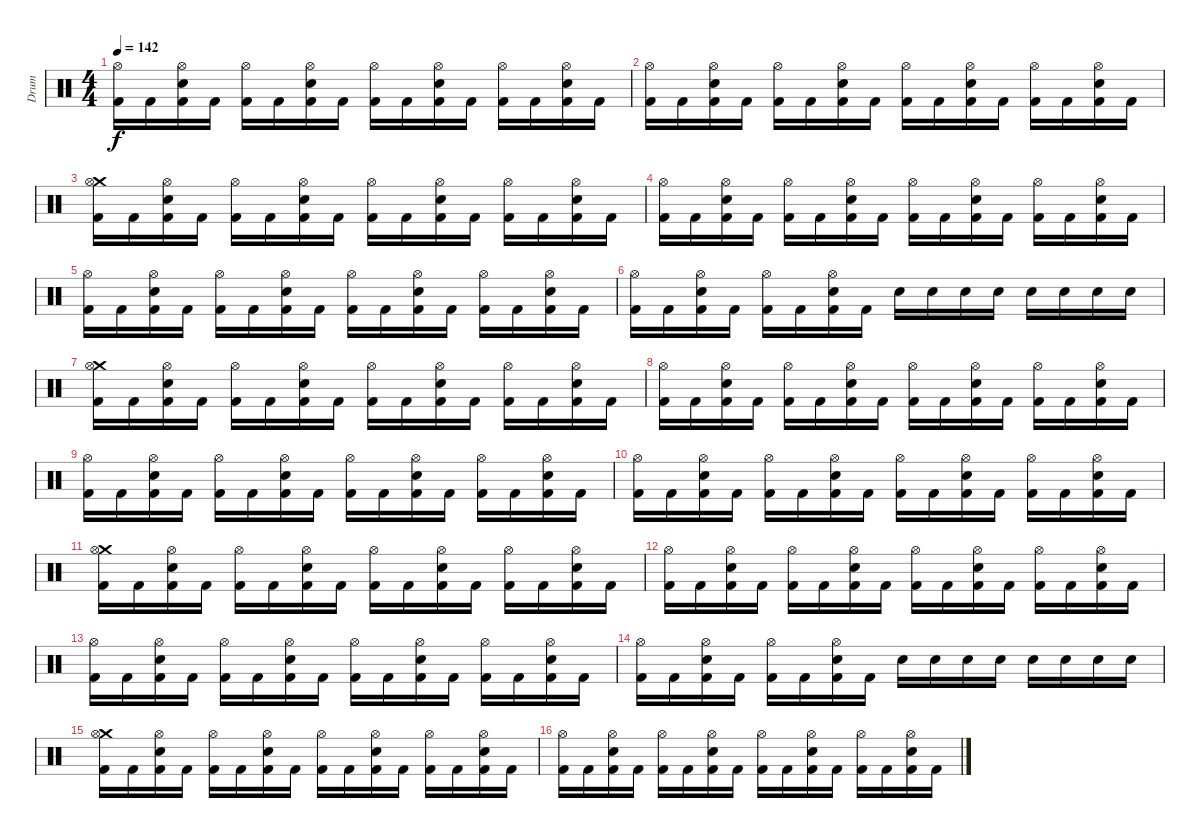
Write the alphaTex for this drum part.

\track ("Drum" "Drum") {instrument percussion}
\staff {score}
\articulation defaults
\ts (4 4)
\tempo 142
\clef neutral
\ks c
("Hi-Hat (open)" "Kick (hit) 2").16{dy f} "Kick (hit) 2".16 ("Electric Snare (hit)" "Hi-Hat (open)" "Kick (hit) 2").16 "Kick (hit) 2".16 ("Hi-Hat (open)" "Kick (hit) 2").16 "Kick (hit) 2".16 ("Electric Snare (hit)" "Hi-Hat (open)" "Kick (hit) 2").16 "Kick (hit) 2".16 ("Hi-Hat (open)" "Kick (hit) 2").16 "Kick (hit) 2".16 ("Electric Snare (hit)" "Hi-Hat (open)" "Kick (hit) 2").16 "Kick (hit) 2".16 ("Hi-Hat (open)" "Kick (hit) 2").16 "Kick (hit) 2".16 ("Electric Snare (hit)" "Hi-Hat (open)" "Kick (hit) 2").16 "Kick (hit) 2".16 |
("Hi-Hat (open)" "Kick (hit) 2").16 "Kick (hit) 2".16 ("Electric Snare (hit)" "Hi-Hat (open)" "Kick (hit) 2").16 "Kick (hit) 2".16 ("Hi-Hat (open)" "Kick (hit) 2").16 "Kick (hit) 2".16 ("Electric Snare (hit)" "Hi-Hat (open)" "Kick (hit) 2").16 "Kick (hit) 2".16 ("Hi-Hat (open)" "Kick (hit) 2").16 "Kick (hit) 2".16 ("Electric Snare (hit)" "Hi-Hat (open)" "Kick (hit) 2").16 "Kick (hit) 2".16 ("Hi-Hat (open)" "Kick (hit) 2").16 "Kick (hit) 2".16 ("Electric Snare (hit)" "Hi-Hat (open)" "Kick (hit) 2").16 "Kick (hit) 2".16 |
("Crash medium (hit)" "Hi-Hat (open)" "Kick (hit) 2").16 "Kick (hit) 2".16 ("Electric Snare (hit)" "Hi-Hat (open)" "Kick (hit) 2").16 "Kick (hit) 2".16 ("Hi-Hat (open)" "Kick (hit) 2").16 "Kick (hit) 2".16 ("Electric Snare (hit)" "Hi-Hat (open)" "Kick (hit) 2").16 "Kick (hit) 2".16 ("Hi-Hat (open)" "Kick (hit) 2").16 "Kick (hit) 2".16 ("Electric Snare (hit)" "Hi-Hat (open)" "Kick (hit) 2").16 "Kick (hit) 2".16 ("Hi-Hat (open)" "Kick (hit) 2").16 "Kick (hit) 2".16 ("Electric Snare (hit)" "Hi-Hat (open)" "Kick (hit) 2").16 "Kick (hit) 2".16 |
("Hi-Hat (open)" "Kick (hit) 2").16 "Kick (hit) 2".16 ("Electric Snare (hit)" "Hi-Hat (open)" "Kick (hit) 2").16 "Kick (hit) 2".16 ("Hi-Hat (open)" "Kick (hit) 2").16 "Kick (hit) 2".16 ("Electric Snare (hit)" "Hi-Hat (open)" "Kick (hit) 2").16 "Kick (hit) 2".16 ("Hi-Hat (open)" "Kick (hit) 2").16 "Kick (hit) 2".16 ("Electric Snare (hit)" "Hi-Hat (open)" "Kick (hit) 2").16 "Kick (hit) 2".16 ("Hi-Hat (open)" "Kick (hit) 2").16 "Kick (hit) 2".16 ("Electric Snare (hit)" "Hi-Hat (open)" "Kick (hit) 2").16 "Kick (hit) 2".16 |
("Hi-Hat (open)" "Kick (hit) 2").16 "Kick (hit) 2".16 ("Electric Snare (hit)" "Hi-Hat (open)" "Kick (hit) 2").16 "Kick (hit) 2".16 ("Hi-Hat (open)" "Kick (hit) 2").16 "Kick (hit) 2".16 ("Electric Snare (hit)" "Hi-Hat (open)" "Kick (hit) 2").16 "Kick (hit) 2".16 ("Hi-Hat (open)" "Kick (hit) 2").16 "Kick (hit) 2".16 ("Electric Snare (hit)" "Hi-Hat (open)" "Kick (hit) 2").16 "Kick (hit) 2".16 ("Hi-Hat (open)" "Kick (hit) 2").16 "Kick (hit) 2".16 ("Electric Snare (hit)" "Hi-Hat (open)" "Kick (hit) 2").16 "Kick (hit) 2".16 |
("Hi-Hat (open)" "Kick (hit) 2").16 "Kick (hit) 2".16 ("Electric Snare (hit)" "Hi-Hat (open)" "Kick (hit) 2").16 "Kick (hit) 2".16 ("Hi-Hat (open)" "Kick (hit) 2").16 "Kick (hit) 2".16 ("Electric Snare (hit)" "Hi-Hat (open)" "Kick (hit) 2").16 "Kick (hit) 2".16 "Electric Snare (hit)".16 "Electric Snare (hit)".16 "Electric Snare (hit)".16 "Electric Snare (hit)".16 "Electric Snare (hit)".16 "Electric Snare (hit)".16 "Electric Snare (hit)".16 "Electric Snare (hit)".16 |
("Crash medium (hit)" "Hi-Hat (open)" "Kick (hit) 2").16 "Kick (hit) 2".16 ("Electric Snare (hit)" "Hi-Hat (open)" "Kick (hit) 2").16 "Kick (hit) 2".16 ("Hi-Hat (open)" "Kick (hit) 2").16 "Kick (hit) 2".16 ("Electric Snare (hit)" "Hi-Hat (open)" "Kick (hit) 2").16 "Kick (hit) 2".16 ("Hi-Hat (open)" "Kick (hit) 2").16 "Kick (hit) 2".16 ("Electric Snare (hit)" "Hi-Hat (open)" "Kick (hit) 2").16 "Kick (hit) 2".16 ("Hi-Hat (open)" "Kick (hit) 2").16 "Kick (hit) 2".16 ("Electric Snare (hit)" "Hi-Hat (open)" "Kick (hit) 2").16 "Kick (hit) 2".16 |
("Hi-Hat (open)" "Kick (hit) 2").16 "Kick (hit) 2".16 ("Electric Snare (hit)" "Hi-Hat (open)" "Kick (hit) 2").16 "Kick (hit) 2".16 ("Hi-Hat (open)" "Kick (hit) 2").16 "Kick (hit) 2".16 ("Electric Snare (hit)" "Hi-Hat (open)" "Kick (hit) 2").16 "Kick (hit) 2".16 ("Hi-Hat (open)" "Kick (hit) 2").16 "Kick (hit) 2".16 ("Electric Snare (hit)" "Hi-Hat (open)" "Kick (hit) 2").16 "Kick (hit) 2".16 ("Hi-Hat (open)" "Kick (hit) 2").16 "Kick (hit) 2".16 ("Electric Snare (hit)" "Hi-Hat (open)" "Kick (hit) 2").16 "Kick (hit) 2".16 |
("Hi-Hat (open)" "Kick (hit) 2").16 "Kick (hit) 2".16 ("Electric Snare (hit)" "Hi-Hat (open)" "Kick (hit) 2").16 "Kick (hit) 2".16 ("Hi-Hat (open)" "Kick (hit) 2").16 "Kick (hit) 2".16 ("Electric Snare (hit)" "Hi-Hat (open)" "Kick (hit) 2").16 "Kick (hit) 2".16 ("Hi-Hat (open)" "Kick (hit) 2").16 "Kick (hit) 2".16 ("Electric Snare (hit)" "Hi-Hat (open)" "Kick (hit) 2").16 "Kick (hit) 2".16 ("Hi-Hat (open)" "Kick (hit) 2").16 "Kick (hit) 2".16 ("Electric Snare (hit)" "Hi-Hat (open)" "Kick (hit) 2").16 "Kick (hit) 2".16 |
("Hi-Hat (open)" "Kick (hit) 2").16 "Kick (hit) 2".16 ("Electric Snare (hit)" "Hi-Hat (open)" "Kick (hit) 2").16 "Kick (hit) 2".16 ("Hi-Hat (open)" "Kick (hit) 2").16 "Kick (hit) 2".16 ("Electric Snare (hit)" "Hi-Hat (open)" "Kick (hit) 2").16 "Kick (hit) 2".16 ("Hi-Hat (open)" "Kick (hit) 2").16 "Kick (hit) 2".16 ("Electric Snare (hit)" "Hi-Hat (open)" "Kick (hit) 2").16 "Kick (hit) 2".16 ("Hi-Hat (open)" "Kick (hit) 2").16 "Kick (hit) 2".16 ("Electric Snare (hit)" "Hi-Hat (open)" "Kick (hit) 2").16 "Kick (hit) 2".16 |
("Crash medium (hit)" "Hi-Hat (open)" "Kick (hit) 2").16 "Kick (hit) 2".16 ("Electric Snare (hit)" "Hi-Hat (open)" "Kick (hit) 2").16 "Kick (hit) 2".16 ("Hi-Hat (open)" "Kick (hit) 2").16 "Kick (hit) 2".16 ("Electric Snare (hit)" "Hi-Hat (open)" "Kick (hit) 2").16 "Kick (hit) 2".16 ("Hi-Hat (open)" "Kick (hit) 2").16 "Kick (hit) 2".16 ("Electric Snare (hit)" "Hi-Hat (open)" "Kick (hit) 2").16 "Kick (hit) 2".16 ("Hi-Hat (open)" "Kick (hit) 2").16 "Kick (hit) 2".16 ("Electric Snare (hit)" "Hi-Hat (open)" "Kick (hit) 2").16 "Kick (hit) 2".16 |
("Hi-Hat (open)" "Kick (hit) 2").16 "Kick (hit) 2".16 ("Electric Snare (hit)" "Hi-Hat (open)" "Kick (hit) 2").16 "Kick (hit) 2".16 ("Hi-Hat (open)" "Kick (hit) 2").16 "Kick (hit) 2".16 ("Electric Snare (hit)" "Hi-Hat (open)" "Kick (hit) 2").16 "Kick (hit) 2".16 ("Hi-Hat (open)" "Kick (hit) 2").16 "Kick (hit) 2".16 ("Electric Snare (hit)" "Hi-Hat (open)" "Kick (hit) 2").16 "Kick (hit) 2".16 ("Hi-Hat (open)" "Kick (hit) 2").16 "Kick (hit) 2".16 ("Electric Snare (hit)" "Hi-Hat (open)" "Kick (hit) 2").16 "Kick (hit) 2".16 |
("Hi-Hat (open)" "Kick (hit) 2").16 "Kick (hit) 2".16 ("Electric Snare (hit)" "Hi-Hat (open)" "Kick (hit) 2").16 "Kick (hit) 2".16 ("Hi-Hat (open)" "Kick (hit) 2").16 "Kick (hit) 2".16 ("Electric Snare (hit)" "Hi-Hat (open)" "Kick (hit) 2").16 "Kick (hit) 2".16 ("Hi-Hat (open)" "Kick (hit) 2").16 "Kick (hit) 2".16 ("Electric Snare (hit)" "Hi-Hat (open)" "Kick (hit) 2").16 "Kick (hit) 2".16 ("Hi-Hat (open)" "Kick (hit) 2").16 "Kick (hit) 2".16 ("Electric Snare (hit)" "Hi-Hat (open)" "Kick (hit) 2").16 "Kick (hit) 2".16 |
("Hi-Hat (open)" "Kick (hit) 2").16 "Kick (hit) 2".16 ("Electric Snare (hit)" "Hi-Hat (open)" "Kick (hit) 2").16 "Kick (hit) 2".16 ("Hi-Hat (open)" "Kick (hit) 2").16 "Kick (hit) 2".16 ("Electric Snare (hit)" "Hi-Hat (open)" "Kick (hit) 2").16 "Kick (hit) 2".16 "Electric Snare (hit)".16 "Electric Snare (hit)".16 "Electric Snare (hit)".16 "Electric Snare (hit)".16 "Electric Snare (hit)".16 "Electric Snare (hit)".16 "Electric Snare (hit)".16 "Electric Snare (hit)".16 |
("Crash medium (hit)" "Hi-Hat (open)" "Kick (hit) 2").16 "Kick (hit) 2".16 ("Electric Snare (hit)" "Hi-Hat (open)" "Kick (hit) 2").16 "Kick (hit) 2".16 ("Hi-Hat (open)" "Kick (hit) 2").16 "Kick (hit) 2".16 ("Electric Snare (hit)" "Hi-Hat (open)" "Kick (hit) 2").16 "Kick (hit) 2".16 ("Hi-Hat (open)" "Kick (hit) 2").16 "Kick (hit) 2".16 ("Electric Snare (hit)" "Hi-Hat (open)" "Kick (hit) 2").16 "Kick (hit) 2".16 ("Hi-Hat (open)" "Kick (hit) 2").16 "Kick (hit) 2".16 ("Electric Snare (hit)" "Hi-Hat (open)" "Kick (hit) 2").16 "Kick (hit) 2".16 |
("Hi-Hat (open)" "Kick (hit) 2").16 "Kick (hit) 2".16 ("Electric Snare (hit)" "Hi-Hat (open)" "Kick (hit) 2").16 "Kick (hit) 2".16 ("Hi-Hat (open)" "Kick (hit) 2").16 "Kick (hit) 2".16 ("Electric Snare (hit)" "Hi-Hat (open)" "Kick (hit) 2").16 "Kick (hit) 2".16 ("Hi-Hat (open)" "Kick (hit) 2").16 "Kick (hit) 2".16 ("Electric Snare (hit)" "Hi-Hat (open)" "Kick (hit) 2").16 "Kick (hit) 2".16 ("Hi-Hat (open)" "Kick (hit) 2").16 "Kick (hit) 2".16 ("Electric Snare (hit)" "Hi-Hat (open)" "Kick (hit) 2").16 "Kick (hit) 2".16
